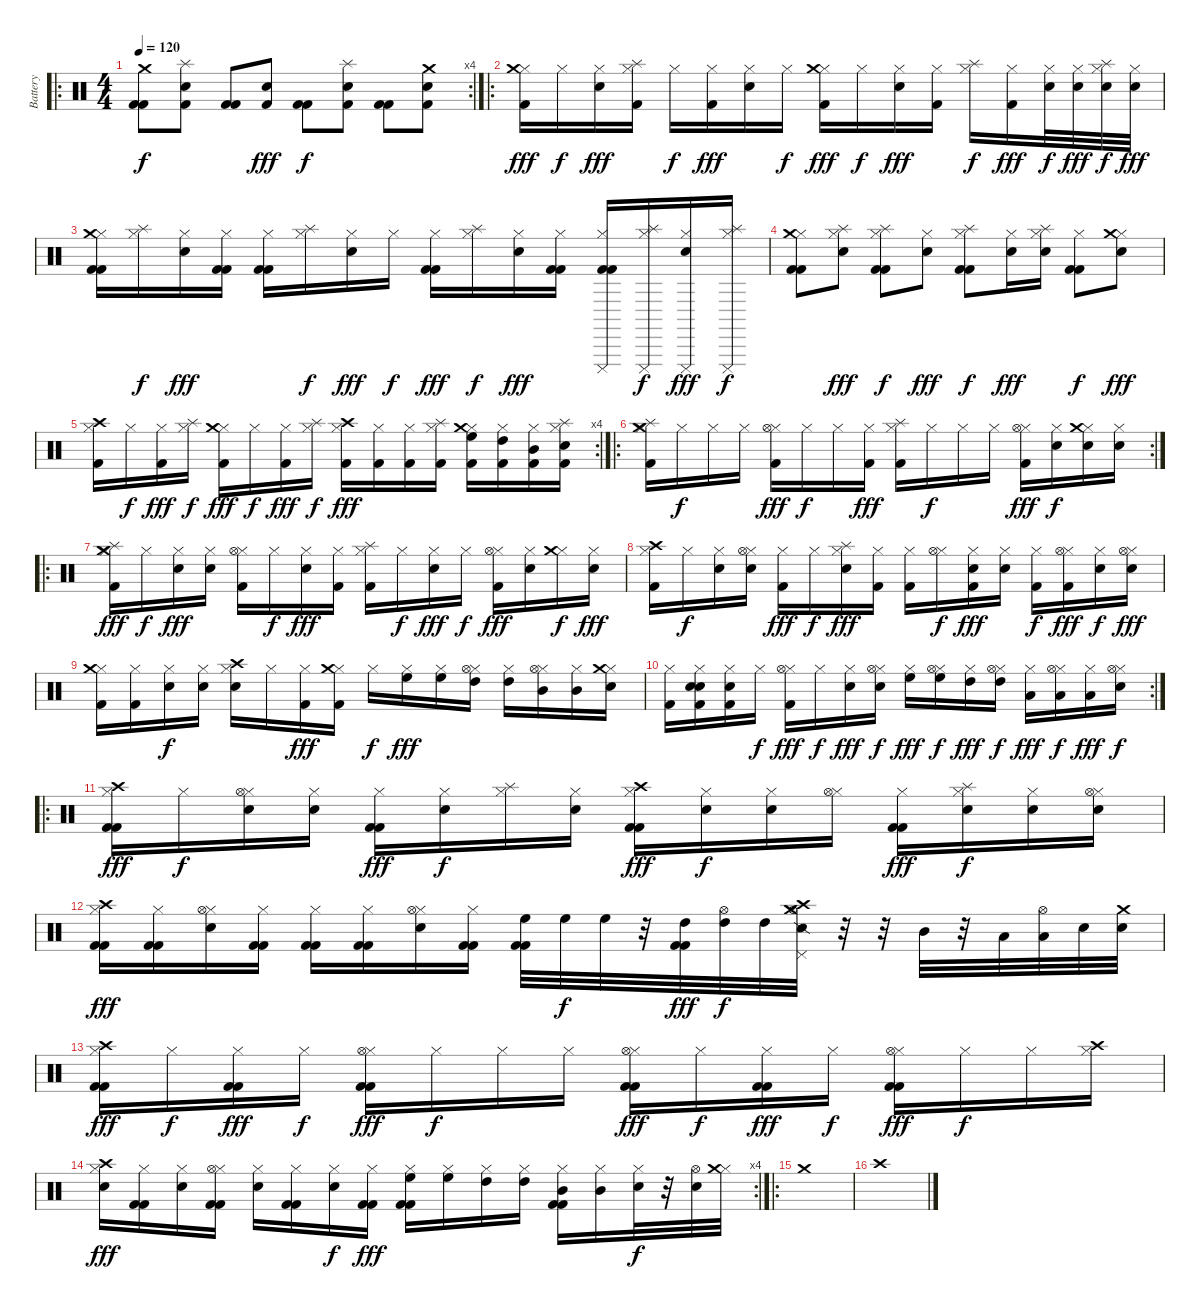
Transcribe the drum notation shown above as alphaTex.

\track ("Battery" "Battery") {instrument percussion}
\staff {score}
\articulation defaults
\ro
\rc 4
\ts (4 4)
\tempo 120
\clef neutral
\ks c
("Crash medium (hit)" "Kick (hit) 2" "Kick (hit) 2").8{dy f} ("Snare (hit) 2" "Splash (hit)" "Kick (hit) 2").8 ("Kick (hit) 2" "Kick (hit) 2").8 ("Snare (hit) 2" "Kick (hit) 2").8{dy fff} ("Kick (hit) 2" "Kick (hit) 2").8{dy f} ("Snare (hit) 2" "Splash (hit)" "Kick (hit) 2").8 ("Kick (hit) 2" "Kick (hit) 2").8 ("Snare (hit) 2" "Crash medium (hit)" "Kick (hit) 2").8 |
\ro
("Hi-Hat (closed)" "Crash medium (hit)" "Kick (hit) 2").16{dy fff} "Hi-Hat (closed)".16{dy f} ("Hi-Hat (closed)" "Snare (hit) 2").16{dy fff} ("Hi-Hat (closed)" "Splash (hit)" "Kick (hit) 2").16 "Hi-Hat (closed)".16{dy f} ("Hi-Hat (closed)" "Kick (hit) 2").16{dy fff} ("Hi-Hat (closed)" "Snare (hit) 2").16 "Hi-Hat (closed)".16{dy f} ("Hi-Hat (closed)" "Crash medium (hit)" "Kick (hit) 2").16{dy fff} "Hi-Hat (closed)".16{dy f} ("Hi-Hat (closed)" "Snare (hit) 2").16{dy fff} ("Hi-Hat (closed)" "Kick (hit) 2").16 ("Hi-Hat (closed)" "Splash (hit)").16{dy f} ("Hi-Hat (closed)" "Kick (hit) 2").16{dy fff} ("Hi-Hat (closed)" "Snare (hit) 2").32{dy f} ("Hi-Hat (closed)" "Snare (hit) 2").32{dy fff} ("Hi-Hat (closed)" "Splash (hit)" "Snare (hit) 2").32{dy f} ("Hi-Hat (closed)" "Snare (hit) 2").32{dy fff} |
("Hi-Hat (closed)" "Crash medium (hit)" "Kick (hit) 2" "Kick (hit) 2").16 ("Hi-Hat (closed)" "Splash (hit)").16{dy f} ("Hi-Hat (closed)" "Snare (hit) 2").16{dy fff} ("Hi-Hat (closed)" "Kick (hit) 2" "Kick (hit) 2").16 ("Hi-Hat (closed)" "Kick (hit) 2" "Kick (hit) 2").16 ("Hi-Hat (closed)" "Splash (hit)").16{dy f} ("Hi-Hat (closed)" "Snare (hit) 2").16{dy fff} "Hi-Hat (closed)".16{dy f} ("Hi-Hat (closed)" "Kick (hit) 2" "Kick (hit) 2").16{dy fff} ("Hi-Hat (closed)" "Splash (hit)").16{dy f} ("Hi-Hat (closed)" "Snare (hit) 2").16{dy fff} ("Hi-Hat (closed)" "Kick (hit) 2" "Kick (hit) 2").16 ("Hi-Hat (closed)" "Cuica (mute)" "Kick (hit) 2" "Kick (hit) 2").16 ("Hi-Hat (closed)" "Cuica (mute)" "Splash (hit)").16{dy f} ("Hi-Hat (closed)" "Cuica (mute)" "Snare (hit) 2").16{dy fff} ("Hi-Hat (closed)" "Cuica (mute)" "Splash (hit)").16{dy f} |
("Hi-Hat (closed)" "Crash medium (hit)" "Kick (hit) 2" "Kick (hit) 2").8 ("Hi-Hat (closed)" "Splash (hit)" "Snare (hit) 2").8{dy fff} ("Hi-Hat (closed)" "Splash (hit)" "Kick (hit) 2" "Kick (hit) 2").8{dy f} ("Hi-Hat (closed)" "Snare (hit) 2").8{dy fff} ("Hi-Hat (closed)" "Splash (hit)" "Kick (hit) 2" "Kick (hit) 2").8{dy f} ("Hi-Hat (closed)" "Snare (hit) 2").16{dy fff} ("Hi-Hat (closed)" "Splash (hit)" "Snare (hit) 2").16 ("Hi-Hat (closed)" "Kick (hit) 2" "Kick (hit) 2").8{dy f} ("Hi-Hat (closed)" "Crash medium (hit)" "Snare (hit) 2").8{dy fff} |
\rc 4
("Hi-Hat (closed)" "Crash high (hit)" "Kick (hit) 2").16 "Hi-Hat (closed)".16{dy f} ("Hi-Hat (closed)" "Kick (hit) 2").16{dy fff} ("Hi-Hat (closed)" "Splash (hit)").16{dy f} ("Hi-Hat (closed)" "Crash medium (hit)" "Kick (hit) 2").16{dy fff} "Hi-Hat (closed)".16{dy f} ("Hi-Hat (closed)" "Kick (hit) 2").16{dy fff} ("Hi-Hat (closed)" "Splash (hit)").16{dy f} ("Hi-Hat (closed)" "Crash high (hit)" "Kick (hit) 2").16{dy fff} ("Hi-Hat (closed)" "Kick (hit) 2").16 ("Hi-Hat (closed)" "Kick (hit) 2").16 ("Hi-Hat (closed)" "Splash (hit)" "Kick (hit) 2").16 ("Hi-Hat (closed)" "Crash medium (hit)" "High Floor Tom (hit)" "Kick (hit) 2").16 ("Hi-Hat (closed)" "High Tom (hit)" "Kick (hit) 2").16 ("Hi-Hat (closed)" "Mid Tom (hit)" "Kick (hit) 2").16 ("Hi-Hat (closed)" "Splash (hit)" "Snare (hit) 2" "Kick (hit) 2").16 |
\ro
\rc 2
("Hi-Hat (closed)" "Crash medium (hit)" "Splash (hit)" "Kick (hit) 2").16 "Hi-Hat (closed)".16{dy f} "Hi-Hat (closed)".16 "Hi-Hat (closed)".16 ("Hi-Hat (closed)" "Hi-Hat (open)" "Kick (hit) 2").16{dy fff} "Hi-Hat (closed)".16{dy f} "Hi-Hat (closed)".16 ("Hi-Hat (closed)" "Kick (hit) 2").16{dy fff} ("Hi-Hat (closed)" "Splash (hit)" "Kick (hit) 2").16 "Hi-Hat (closed)".16{dy f} "Hi-Hat (closed)".16 "Hi-Hat (closed)".16 ("Hi-Hat (closed)" "Hi-Hat (open)" "Kick (hit) 2").16{dy fff} ("Hi-Hat (closed)" "Snare (hit) 2").16{dy f} ("Hi-Hat (closed)" "Crash medium (hit)" "Snare (hit) 2").16 ("Hi-Hat (closed)" "Snare (hit) 2").16 |
\ro
("Hi-Hat (closed)" "Crash medium (hit)" "Splash (hit)" "Kick (hit) 2").16{dy fff} "Hi-Hat (closed)".16{dy f} ("Hi-Hat (closed)" "Snare (hit) 2").16{dy fff} ("Hi-Hat (closed)" "Snare (hit) 2").16 ("Hi-Hat (closed)" "Hi-Hat (open)" "Kick (hit) 2").16 "Hi-Hat (closed)".16{dy f} ("Hi-Hat (closed)" "Snare (hit) 2").16{dy fff} ("Hi-Hat (closed)" "Kick (hit) 2").16 ("Hi-Hat (closed)" "Splash (hit)" "Kick (hit) 2").16 "Hi-Hat (closed)".16{dy f} ("Hi-Hat (closed)" "Snare (hit) 2").16{dy fff} "Hi-Hat (closed)".16{dy f} ("Hi-Hat (closed)" "Hi-Hat (open)" "Kick (hit) 2").16{dy fff} ("Hi-Hat (closed)" "Snare (hit) 2").16 ("Hi-Hat (closed)" "Crash medium (hit)").16{dy f} ("Hi-Hat (closed)" "Snare (hit) 2").16{dy fff} |
("Hi-Hat (closed)" "Crash high (hit)" "Kick (hit) 2").16 "Hi-Hat (closed)".16{dy f} ("Hi-Hat (closed)" "Snare (hit) 2").16 ("Hi-Hat (closed)" "Snare (hit) 2" "Hi-Hat (open)").16 ("Hi-Hat (closed)" "Kick (hit) 2").16{dy fff} "Hi-Hat (closed)".16{dy f} ("Hi-Hat (closed)" "Splash (hit)" "Snare (hit) 2").16{dy fff} ("Hi-Hat (closed)" "Kick (hit) 2").16 ("Hi-Hat (closed)" "Kick (hit) 2").16 ("Hi-Hat (closed)" "Hi-Hat (open)").16{dy f} ("Hi-Hat (closed)" "Snare (hit) 2" "Kick (hit) 2").16{dy fff} ("Hi-Hat (closed)" "Snare (hit) 2").16 ("Hi-Hat (closed)" "Kick (hit) 2").16{dy f} ("Hi-Hat (closed)" "Hi-Hat (open)" "Kick (hit) 2").16{dy fff} ("Hi-Hat (closed)" "Snare (hit) 2").16{dy f} ("Hi-Hat (closed)" "Snare (hit) 2" "Hi-Hat (open)").16{dy fff} |
("Hi-Hat (closed)" "Crash medium (hit)" "Kick (hit) 2").16 ("Hi-Hat (closed)" "Kick (hit) 2").16 ("Hi-Hat (closed)" "Snare (hit) 2").16{dy f} ("Hi-Hat (closed)" "Snare (hit) 2").16 ("Hi-Hat (closed)" "Snare (hit) 2" "Crash high (hit)").16 "Hi-Hat (closed)".16 ("Hi-Hat (closed)" "Kick (hit) 2").16{dy fff} ("Hi-Hat (closed)" "Crash medium (hit)" "Kick (hit) 2").16 "Hi-Hat (closed)".16{dy f} ("Hi-Hat (closed)" "High Floor Tom (hit)").16{dy fff} ("Hi-Hat (closed)" "High Floor Tom (hit)").16 ("Hi-Hat (closed)" "High Tom (hit)" "Hi-Hat (open)").16 ("Hi-Hat (closed)" "High Tom (hit)").16 ("Hi-Hat (closed)" "Mid Tom (hit)" "Hi-Hat (open)").16 ("Hi-Hat (closed)" "Mid Tom (hit)").16 ("Hi-Hat (closed)" "Snare (hit) 2" "Crash medium (hit)").16 |
\rc 2
("Hi-Hat (closed)" "Kick (hit) 2").16 ("Hi-Hat (closed)" "Snare (hit) 2" "Snare (hit) 2" "Kick (hit) 2").16 ("Hi-Hat (closed)" "Snare (hit) 2" "Kick (hit) 2").16 "Hi-Hat (closed)".16{dy f} ("Hi-Hat (closed)" "Hi-Hat (open)" "Kick (hit) 2").16{dy fff} "Hi-Hat (closed)".16{dy f} ("Hi-Hat (closed)" "Snare (hit) 2").16{dy fff} ("Hi-Hat (closed)" "Snare (hit) 2" "Hi-Hat (open)").16{dy f} ("Hi-Hat (closed)" "High Floor Tom (hit)").16{dy fff} ("Hi-Hat (closed)" "High Floor Tom (hit)" "Hi-Hat (open)").16{dy f} ("Hi-Hat (closed)" "High Tom (hit)").16{dy fff} ("Hi-Hat (closed)" "High Tom (hit)" "Hi-Hat (open)").16{dy f} ("Hi-Hat (closed)" "Low Tom (hit)").16{dy fff} ("Hi-Hat (closed)" "Low Tom (hit)" "Hi-Hat (open)").16{dy f} ("Hi-Hat (closed)" "Low Tom (hit)").16{dy fff} ("Hi-Hat (closed)" "Snare (hit) 2" "Hi-Hat (open)").16{dy f} |
\ro
("Hi-Hat (closed)" "Crash high (hit)" "Kick (hit) 2" "Kick (hit) 2").16{dy fff} "Hi-Hat (closed)".16{dy f} ("Hi-Hat (closed)" "Snare (hit) 2" "Hi-Hat (open)").16 ("Hi-Hat (closed)" "Snare (hit) 2").16 ("Hi-Hat (closed)" "Kick (hit) 2" "Kick (hit) 2").16{dy fff} ("Hi-Hat (closed)" "Snare (hit) 2").16{dy f} ("Hi-Hat (closed)" "Splash (hit)").16 ("Hi-Hat (closed)" "Snare (hit) 2").16 ("Hi-Hat (closed)" "Crash high (hit)" "Kick (hit) 2" "Kick (hit) 2").16{dy fff} ("Hi-Hat (closed)" "Snare (hit) 2").16{dy f} ("Hi-Hat (closed)" "Snare (hit) 2").16 ("Hi-Hat (closed)" "Hi-Hat (open)").16 ("Hi-Hat (closed)" "Kick (hit) 2" "Kick (hit) 2").16{dy fff} ("Hi-Hat (closed)" "Snare (hit) 2" "Splash (hit)").16{dy f} ("Hi-Hat (closed)" "Snare (hit) 2").16 ("Hi-Hat (closed)" "Snare (hit) 2" "Hi-Hat (open)").16 |
("Hi-Hat (closed)" "Crash high (hit)" "Kick (hit) 2" "Kick (hit) 2").16{dy fff} ("Hi-Hat (closed)" "Kick (hit) 2" "Kick (hit) 2").16 ("Hi-Hat (closed)" "Snare (hit) 2" "Hi-Hat (open)").16 ("Hi-Hat (closed)" "Kick (hit) 2" "Kick (hit) 2").16 ("Hi-Hat (closed)" "Kick (hit) 2" "Kick (hit) 2").16 ("Hi-Hat (closed)" "Kick (hit) 2" "Kick (hit) 2").16 ("Hi-Hat (closed)" "Snare (hit) 2" "Hi-Hat (open)").16 ("Hi-Hat (closed)" "Kick (hit) 2" "Kick (hit) 2").16 ("High Floor Tom (hit)" "Kick (hit) 2" "Kick (hit) 2").32 "High Floor Tom (hit)".32{dy f} "High Floor Tom (hit)".32 r.32 ("High Tom (hit)" "Kick (hit) 2" "Kick (hit) 2").32{dy fff} ("High Tom (hit)" "Hi-Hat (open)").32{dy f} "High Tom (hit)".32 ("Crash medium (hit)" "Crash high (hit)" "Pedal Hi-Hat (hit)" "Hi-Hat (open)" "Snare (side stick) 2").32 r.32 r.32 "Mid Tom (hit)".32 r.32 "Low Tom (hit)".32 ("Low Tom (hit)" "Hi-Hat (open)").32 "Snare (hit) 2".32 ("Snare (hit) 2" "Crash medium (hit)").32 |
("Hi-Hat (closed)" "Crash high (hit)" "Kick (hit) 2" "Kick (hit) 2").16{dy fff} "Hi-Hat (closed)".16{dy f} ("Hi-Hat (closed)" "Kick (hit) 2" "Kick (hit) 2").16{dy fff} "Hi-Hat (closed)".16{dy f} ("Hi-Hat (closed)" "Hi-Hat (open)" "Kick (hit) 2" "Kick (hit) 2").16{dy fff} "Hi-Hat (closed)".16{dy f} "Hi-Hat (closed)".16 "Hi-Hat (closed)".16 ("Hi-Hat (closed)" "Hi-Hat (open)" "Kick (hit) 2" "Kick (hit) 2").16{dy fff} "Hi-Hat (closed)".16{dy f} ("Hi-Hat (closed)" "Kick (hit) 2" "Kick (hit) 2").16{dy fff} "Hi-Hat (closed)".16{dy f} ("Hi-Hat (closed)" "Hi-Hat (open)" "Kick (hit) 2" "Kick (hit) 2").16{dy fff} "Hi-Hat (closed)".16{dy f} "Hi-Hat (closed)".16 ("Hi-Hat (closed)" "Crash high (hit)").16 |
\rc 4
("Hi-Hat (closed)" "Crash high (hit)" "Snare (hit) 2").16{dy fff} ("Hi-Hat (closed)" "Kick (hit) 2" "Kick (hit) 2").16 ("Hi-Hat (closed)" "Snare (hit) 2").16 ("Hi-Hat (closed)" "Hi-Hat (open)" "Kick (hit) 2" "Kick (hit) 2").16 ("Hi-Hat (closed)" "Snare (hit) 2").16 ("Hi-Hat (closed)" "Kick (hit) 2" "Kick (hit) 2").16 ("Hi-Hat (closed)" "Snare (hit) 2").16{dy f} ("Hi-Hat (closed)" "Kick (hit) 2" "Kick (hit) 2").16{dy fff} ("Hi-Hat (closed)" "High Floor Tom (hit)" "Kick (hit) 2" "Kick (hit) 2").16 ("Hi-Hat (closed)" "High Floor Tom (hit)").16 ("Hi-Hat (closed)" "High Tom (hit)").16 ("Hi-Hat (closed)" "High Tom (hit)").16 ("Hi-Hat (closed)" "Mid Tom (hit)" "Kick (hit) 2" "Kick (hit) 2").16 ("Hi-Hat (closed)" "Mid Tom (hit)").16 ("Hi-Hat (closed)" "Snare (hit) 2").32{dy f} r.32 ("Hi-Hat (open)" "Snare (hit) 2").32 ("Hi-Hat (closed)" "Crash medium (hit)").32 |
\ro "Crash medium (hit)".1
|
"Crash high (hit)".1
